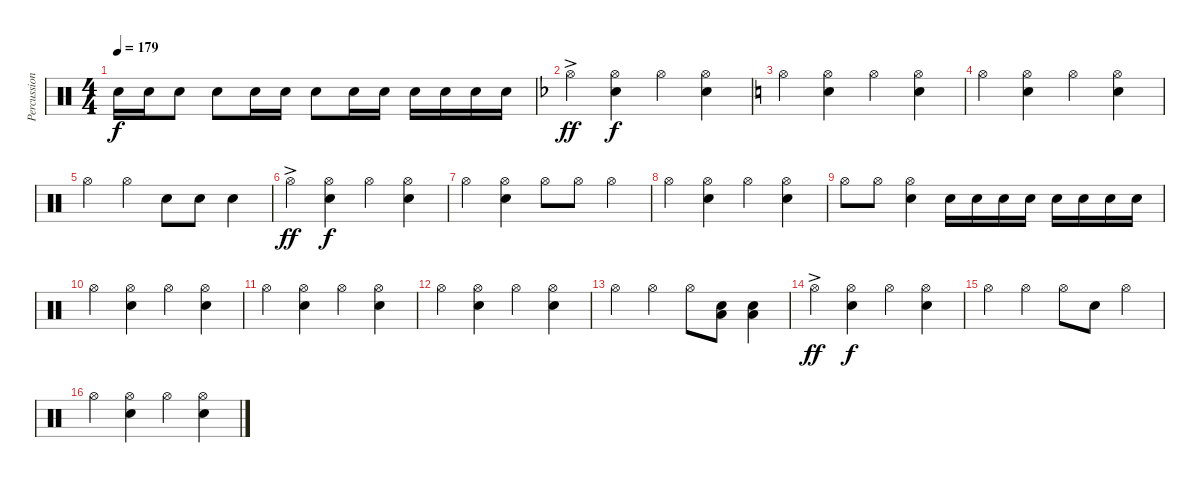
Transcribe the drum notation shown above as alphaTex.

\track ("Percussion 01" "Percussion") {instrument percussion}
\staff {score}
\articulation defaults
\ts (4 4)
\tempo 179
\clef neutral
\ks aminor "Snare (hit) 2".16{dy f} "Snare (hit) 2".16 "Snare (hit) 2".8 "Snare (hit) 2".8 "Snare (hit) 2".16 "Snare (hit) 2".16 "Snare (hit) 2".8 "Snare (hit) 2".16 "Snare (hit) 2".16 "Snare (hit) 2".16 "Snare (hit) 2".16 "Snare (hit) 2".16 "Snare (hit) 2".16
|
\ks dminor "Hi-Hat (open)"{ac}.4{dy ff}
("Hi-Hat (open)" "Snare (hit) 2").4{dy f} "Hi-Hat (open)".4 ("Hi-Hat (open)" "Snare (hit) 2").4 |
\ks aminor "Hi-Hat (open)".4
("Hi-Hat (open)" "Snare (hit) 2").4 "Hi-Hat (open)".4 ("Hi-Hat (open)" "Snare (hit) 2").4 |
"Hi-Hat (open)".4 ("Hi-Hat (open)" "Snare (hit) 2").4 "Hi-Hat (open)".4 ("Hi-Hat (open)" "Snare (hit) 2").4 |
"Hi-Hat (open)".4 "Hi-Hat (open)".4 "Snare (hit) 2".8 "Snare (hit) 2".8 "Snare (hit) 2".4 |
"Hi-Hat (open)"{ac}.4{dy ff} ("Hi-Hat (open)" "Snare (hit) 2").4{dy f} "Hi-Hat (open)".4 ("Hi-Hat (open)" "Snare (hit) 2").4 |
"Hi-Hat (open)".4 ("Hi-Hat (open)" "Snare (hit) 2").4 "Hi-Hat (open)".8 "Hi-Hat (open)".8 "Hi-Hat (open)".4 |
"Hi-Hat (open)".4 ("Hi-Hat (open)" "Snare (hit) 2").4 "Hi-Hat (open)".4 ("Hi-Hat (open)" "Snare (hit) 2").4 |
"Hi-Hat (open)".8 "Hi-Hat (open)".8 ("Hi-Hat (open)" "Snare (hit) 2").4 "Snare (hit) 2".16 "Snare (hit) 2".16 "Snare (hit) 2".16 "Snare (hit) 2".16 "Snare (hit) 2".16 "Snare (hit) 2".16 "Snare (hit) 2".16 "Snare (hit) 2".16 |
"Hi-Hat (open)".4 ("Hi-Hat (open)" "Snare (hit) 2").4 "Hi-Hat (open)".4 ("Hi-Hat (open)" "Snare (hit) 2").4 |
"Hi-Hat (open)".4 ("Hi-Hat (open)" "Snare (hit) 2").4 "Hi-Hat (open)".4 ("Hi-Hat (open)" "Snare (hit) 2").4 |
"Hi-Hat (open)".4 ("Hi-Hat (open)" "Snare (hit) 2").4 "Hi-Hat (open)".4 ("Hi-Hat (open)" "Snare (hit) 2").4 |
"Hi-Hat (open)".4 "Hi-Hat (open)".4 "Hi-Hat (open)".8 ("Snare (hit) 2" "Low Tom (hit)").8 ("Snare (hit) 2" "Low Tom (hit)").4 |
"Hi-Hat (open)"{ac}.4{dy ff} ("Hi-Hat (open)" "Snare (hit) 2").4{dy f} "Hi-Hat (open)".4 ("Hi-Hat (open)" "Snare (hit) 2").4 |
"Hi-Hat (open)".4 "Hi-Hat (open)".4 "Hi-Hat (open)".8 "Snare (hit) 2".8 "Hi-Hat (open)".4 |
"Hi-Hat (open)".4 ("Hi-Hat (open)" "Snare (hit) 2").4 "Hi-Hat (open)".4 ("Hi-Hat (open)" "Snare (hit) 2").4
